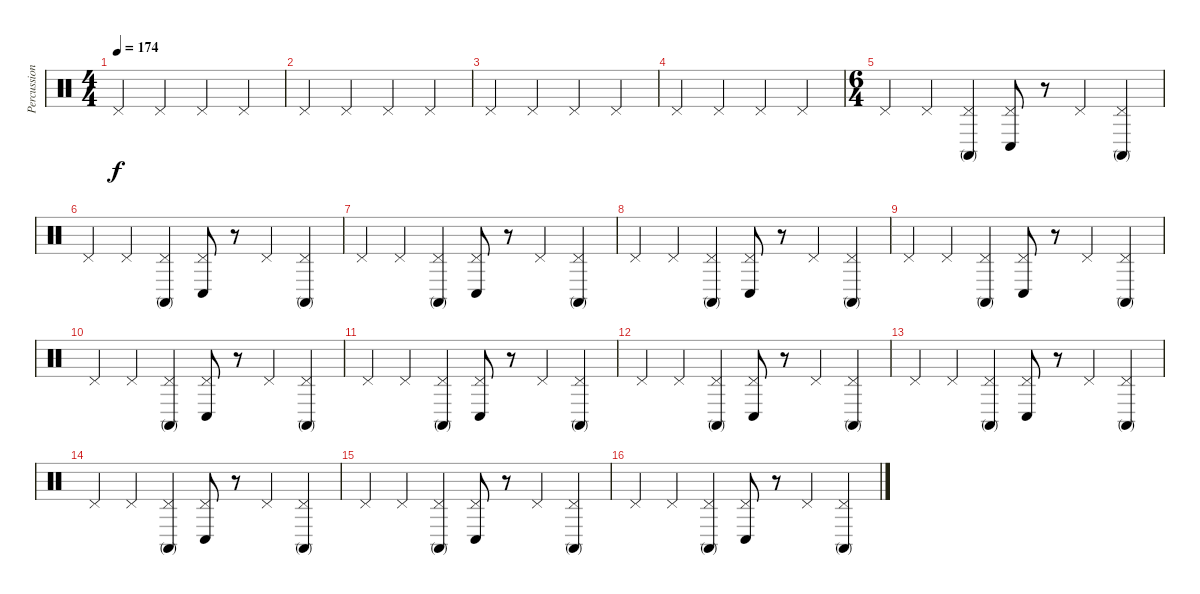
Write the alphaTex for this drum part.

\track ("Percussion" "Percussion") {instrument percussion}
\staff {score}
\articulation defaults
\ts (4 4)
\tempo 174
\clef neutral
\ks c "Pedal Hi-Hat (hit)".4{dy f} "Pedal Hi-Hat (hit)".4 "Pedal Hi-Hat (hit)".4 "Pedal Hi-Hat (hit)".4
|
"Pedal Hi-Hat (hit)".4 "Pedal Hi-Hat (hit)".4 "Pedal Hi-Hat (hit)".4 "Pedal Hi-Hat (hit)".4 |
"Pedal Hi-Hat (hit)".4 "Pedal Hi-Hat (hit)".4 "Pedal Hi-Hat (hit)".4 "Pedal Hi-Hat (hit)".4 |
"Pedal Hi-Hat (hit)".4 "Pedal Hi-Hat (hit)".4 "Pedal Hi-Hat (hit)".4 "Pedal Hi-Hat (hit)".4 |
\ts (6 4)
"Pedal Hi-Hat (hit)".4 "Pedal Hi-Hat (hit)".4 ("Pedal Hi-Hat (hit)" "Conga high (mute)").4 ("Pedal Hi-Hat (hit)" "Conga low (hit)").8 r.8 "Pedal Hi-Hat (hit)".4 ("Pedal Hi-Hat (hit)" "Conga high (mute)").4 |
"Pedal Hi-Hat (hit)".4 "Pedal Hi-Hat (hit)".4 ("Pedal Hi-Hat (hit)" "Conga high (mute)").4 ("Pedal Hi-Hat (hit)" "Conga low (hit)").8 r.8 "Pedal Hi-Hat (hit)".4 ("Pedal Hi-Hat (hit)" "Conga high (mute)").4 |
"Pedal Hi-Hat (hit)".4 "Pedal Hi-Hat (hit)".4 ("Pedal Hi-Hat (hit)" "Conga high (mute)").4 ("Pedal Hi-Hat (hit)" "Conga low (hit)").8 r.8 "Pedal Hi-Hat (hit)".4 ("Pedal Hi-Hat (hit)" "Conga high (mute)").4 |
"Pedal Hi-Hat (hit)".4 "Pedal Hi-Hat (hit)".4 ("Pedal Hi-Hat (hit)" "Conga high (mute)").4 ("Pedal Hi-Hat (hit)" "Conga low (hit)").8 r.8 "Pedal Hi-Hat (hit)".4 ("Pedal Hi-Hat (hit)" "Conga high (mute)").4 |
"Pedal Hi-Hat (hit)".4 "Pedal Hi-Hat (hit)".4 ("Pedal Hi-Hat (hit)" "Conga high (mute)").4 ("Pedal Hi-Hat (hit)" "Conga low (hit)").8 r.8 "Pedal Hi-Hat (hit)".4 ("Pedal Hi-Hat (hit)" "Conga high (mute)").4 |
"Pedal Hi-Hat (hit)".4 "Pedal Hi-Hat (hit)".4 ("Pedal Hi-Hat (hit)" "Conga high (mute)").4 ("Pedal Hi-Hat (hit)" "Conga low (hit)").8 r.8 "Pedal Hi-Hat (hit)".4 ("Pedal Hi-Hat (hit)" "Conga high (mute)").4 |
"Pedal Hi-Hat (hit)".4 "Pedal Hi-Hat (hit)".4 ("Pedal Hi-Hat (hit)" "Conga high (mute)").4 ("Pedal Hi-Hat (hit)" "Conga low (hit)").8 r.8 "Pedal Hi-Hat (hit)".4 ("Pedal Hi-Hat (hit)" "Conga high (mute)").4 |
"Pedal Hi-Hat (hit)".4 "Pedal Hi-Hat (hit)".4 ("Pedal Hi-Hat (hit)" "Conga high (mute)").4 ("Pedal Hi-Hat (hit)" "Conga low (hit)").8 r.8 "Pedal Hi-Hat (hit)".4 ("Pedal Hi-Hat (hit)" "Conga high (mute)").4 |
"Pedal Hi-Hat (hit)".4 "Pedal Hi-Hat (hit)".4 ("Pedal Hi-Hat (hit)" "Conga high (mute)").4 ("Pedal Hi-Hat (hit)" "Conga low (hit)").8 r.8 "Pedal Hi-Hat (hit)".4 ("Pedal Hi-Hat (hit)" "Conga high (mute)").4 |
"Pedal Hi-Hat (hit)".4 "Pedal Hi-Hat (hit)".4 ("Pedal Hi-Hat (hit)" "Conga high (mute)").4 ("Pedal Hi-Hat (hit)" "Conga low (hit)").8 r.8 "Pedal Hi-Hat (hit)".4 ("Pedal Hi-Hat (hit)" "Conga high (mute)").4 |
"Pedal Hi-Hat (hit)".4 "Pedal Hi-Hat (hit)".4 ("Pedal Hi-Hat (hit)" "Conga high (mute)").4 ("Pedal Hi-Hat (hit)" "Conga low (hit)").8 r.8 "Pedal Hi-Hat (hit)".4 ("Pedal Hi-Hat (hit)" "Conga high (mute)").4 |
"Pedal Hi-Hat (hit)".4 "Pedal Hi-Hat (hit)".4 ("Pedal Hi-Hat (hit)" "Conga high (mute)").4 ("Pedal Hi-Hat (hit)" "Conga low (hit)").8 r.8 "Pedal Hi-Hat (hit)".4 ("Pedal Hi-Hat (hit)" "Conga high (mute)").4
